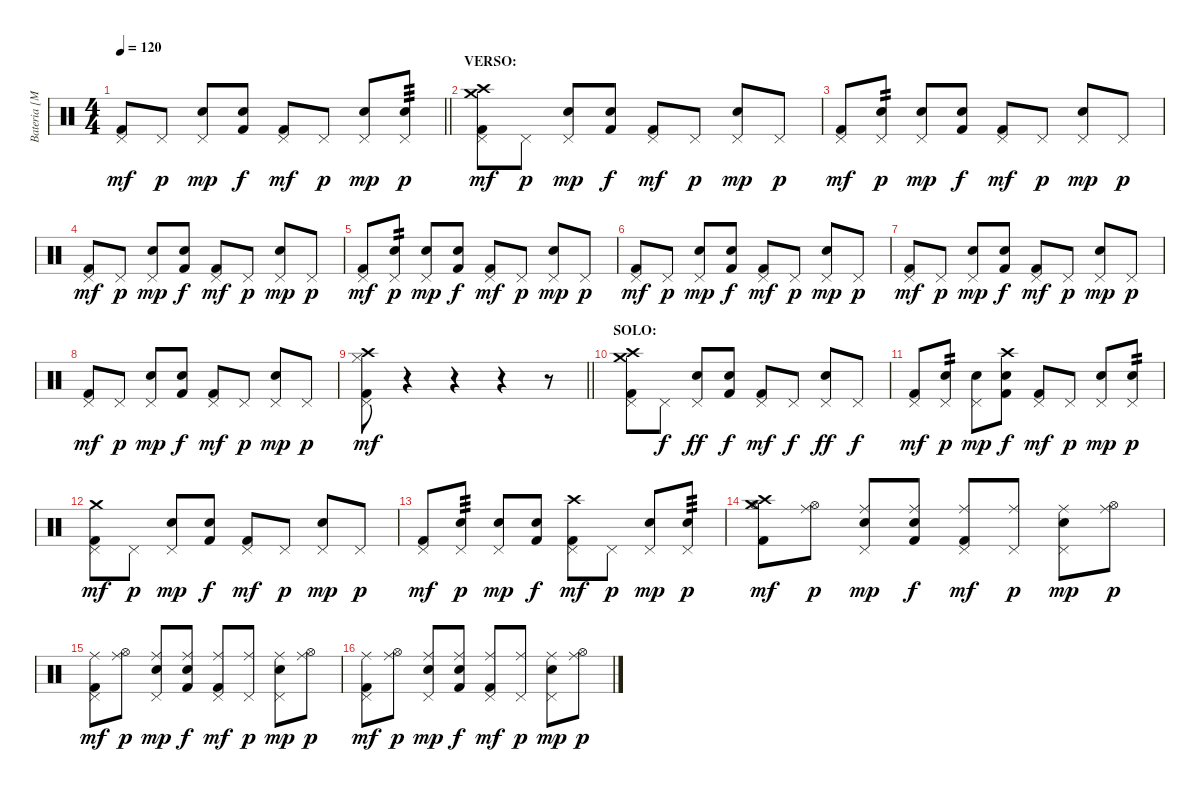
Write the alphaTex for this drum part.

\track ("Bateria [Mauricio Basualto]" "Bateria [M") {instrument percussion}
\staff {score}
\articulation defaults
\ts (4 4)
\tempo 120
\clef neutral
\barLineRight lightlight
\ks c
("Kick (hit) 2" "Pedal Hi-Hat (hit)").8{dy mf} "Pedal Hi-Hat (hit)".8{dy p} ("Electric Snare (hit)" "Pedal Hi-Hat (hit)").8{dy mp} ("Electric Snare (hit)" "Kick (hit) 2").8{dy f} ("Kick (hit) 2" "Pedal Hi-Hat (hit)").8{dy mf} "Pedal Hi-Hat (hit)".8{dy p} ("Electric Snare (hit)" "Pedal Hi-Hat (hit)").8{dy mp} ("Pedal Hi-Hat (hit)" "Electric Snare (hit)").8{tp 3 dy p} |
\section ("" "VERSO: ")
("Kick (hit) 2" "Pedal Hi-Hat (hit)" "Crash medium (hit)" "Crash high (hit)").8{dy mf} "Pedal Hi-Hat (hit)".8{dy p} ("Electric Snare (hit)" "Pedal Hi-Hat (hit)").8{dy mp} ("Electric Snare (hit)" "Kick (hit) 2").8{dy f} ("Kick (hit) 2" "Pedal Hi-Hat (hit)").8{dy mf} "Pedal Hi-Hat (hit)".8{dy p} ("Electric Snare (hit)" "Pedal Hi-Hat (hit)").8{dy mp} "Pedal Hi-Hat (hit)".8{dy p} |
("Kick (hit) 2" "Pedal Hi-Hat (hit)").8{dy mf} ("Pedal Hi-Hat (hit)" "Electric Snare (hit)").8{tp 2 dy p} ("Electric Snare (hit)" "Pedal Hi-Hat (hit)").8{dy mp} ("Electric Snare (hit)" "Kick (hit) 2").8{dy f} ("Kick (hit) 2" "Pedal Hi-Hat (hit)").8{dy mf} "Pedal Hi-Hat (hit)".8{dy p} ("Electric Snare (hit)" "Pedal Hi-Hat (hit)").8{dy mp} "Pedal Hi-Hat (hit)".8{dy p} |
("Kick (hit) 2" "Pedal Hi-Hat (hit)").8{dy mf} "Pedal Hi-Hat (hit)".8{dy p} ("Electric Snare (hit)" "Pedal Hi-Hat (hit)").8{dy mp} ("Electric Snare (hit)" "Kick (hit) 2").8{dy f} ("Kick (hit) 2" "Pedal Hi-Hat (hit)").8{dy mf} "Pedal Hi-Hat (hit)".8{dy p} ("Electric Snare (hit)" "Pedal Hi-Hat (hit)").8{dy mp} "Pedal Hi-Hat (hit)".8{dy p} |
("Kick (hit) 2" "Pedal Hi-Hat (hit)").8{dy mf} ("Pedal Hi-Hat (hit)" "Electric Snare (hit)").8{tp 2 dy p} ("Electric Snare (hit)" "Pedal Hi-Hat (hit)").8{dy mp} ("Electric Snare (hit)" "Kick (hit) 2").8{dy f} ("Kick (hit) 2" "Pedal Hi-Hat (hit)").8{dy mf} "Pedal Hi-Hat (hit)".8{dy p} ("Electric Snare (hit)" "Pedal Hi-Hat (hit)").8{dy mp} "Pedal Hi-Hat (hit)".8{dy p} |
("Kick (hit) 2" "Pedal Hi-Hat (hit)").8{dy mf} "Pedal Hi-Hat (hit)".8{dy p} ("Electric Snare (hit)" "Pedal Hi-Hat (hit)").8{dy mp} ("Electric Snare (hit)" "Kick (hit) 2").8{dy f} ("Kick (hit) 2" "Pedal Hi-Hat (hit)").8{dy mf} "Pedal Hi-Hat (hit)".8{dy p} ("Electric Snare (hit)" "Pedal Hi-Hat (hit)").8{dy mp} "Pedal Hi-Hat (hit)".8{dy p} |
("Kick (hit) 2" "Pedal Hi-Hat (hit)").8{dy mf} "Pedal Hi-Hat (hit)".8{dy p} ("Electric Snare (hit)" "Pedal Hi-Hat (hit)").8{dy mp} ("Electric Snare (hit)" "Kick (hit) 2").8{dy f} ("Kick (hit) 2" "Pedal Hi-Hat (hit)").8{dy mf} "Pedal Hi-Hat (hit)".8{dy p} ("Electric Snare (hit)" "Pedal Hi-Hat (hit)").8{dy mp} "Pedal Hi-Hat (hit)".8{dy p} |
("Kick (hit) 2" "Pedal Hi-Hat (hit)").8{dy mf} "Pedal Hi-Hat (hit)".8{dy p} ("Electric Snare (hit)" "Pedal Hi-Hat (hit)").8{dy mp} ("Electric Snare (hit)" "Kick (hit) 2").8{dy f} ("Kick (hit) 2" "Pedal Hi-Hat (hit)").8{dy mf} "Pedal Hi-Hat (hit)".8{dy p} ("Electric Snare (hit)" "Pedal Hi-Hat (hit)").8{dy mp} "Pedal Hi-Hat (hit)".8{dy p} |
\barLineRight lightlight
("Kick (hit) 2" "Hi-Hat (closed)" "Pedal Hi-Hat (hit)" "Crash high (hit)").8{dy mf} r.4 r.4 r.4 r.8 |
\section ("" "SOLO:")
("Kick (hit) 2" "Pedal Hi-Hat (hit)" "Crash medium (hit)" "Crash high (hit)").8 "Pedal Hi-Hat (hit)".8{dy f} ("Electric Snare (hit)" "Pedal Hi-Hat (hit)").8{dy ff} ("Electric Snare (hit)" "Kick (hit) 2").8{dy f} ("Kick (hit) 2" "Pedal Hi-Hat (hit)").8{dy mf} "Pedal Hi-Hat (hit)".8{dy f} ("Electric Snare (hit)" "Pedal Hi-Hat (hit)").8{dy ff} "Pedal Hi-Hat (hit)".8{dy f} |
("Kick (hit) 2" "Pedal Hi-Hat (hit)").8{dy mf} ("Pedal Hi-Hat (hit)" "Electric Snare (hit)").8{tp 2 dy p} ("Electric Snare (hit)" "Pedal Hi-Hat (hit)").8{dy mp} ("Electric Snare (hit)" "Kick (hit) 2" "Crash high (hit)").8{dy f} ("Kick (hit) 2" "Pedal Hi-Hat (hit)").8{dy mf} "Pedal Hi-Hat (hit)".8{dy p} ("Electric Snare (hit)" "Pedal Hi-Hat (hit)").8{dy mp} ("Pedal Hi-Hat (hit)" "Electric Snare (hit)").8{tp 2 dy p} |
("Kick (hit) 2" "Pedal Hi-Hat (hit)" "Crash medium (hit)").8{dy mf} "Pedal Hi-Hat (hit)".8{dy p} ("Electric Snare (hit)" "Pedal Hi-Hat (hit)").8{dy mp} ("Electric Snare (hit)" "Kick (hit) 2").8{dy f} ("Kick (hit) 2" "Pedal Hi-Hat (hit)").8{dy mf} "Pedal Hi-Hat (hit)".8{dy p} ("Electric Snare (hit)" "Pedal Hi-Hat (hit)").8{dy mp} "Pedal Hi-Hat (hit)".8{dy p} |
("Kick (hit) 2" "Pedal Hi-Hat (hit)").8{dy mf} ("Pedal Hi-Hat (hit)" "Electric Snare (hit)").8{tp 3 dy p} ("Electric Snare (hit)" "Pedal Hi-Hat (hit)").8{dy mp} ("Electric Snare (hit)" "Kick (hit) 2").8{dy f} ("Kick (hit) 2" "Pedal Hi-Hat (hit)" "Crash high (hit)").8{dy mf} "Pedal Hi-Hat (hit)".8{dy p} ("Electric Snare (hit)" "Pedal Hi-Hat (hit)").8{dy mp} ("Pedal Hi-Hat (hit)" "Electric Snare (hit)").8{tp 3 dy p} |
("Kick (hit) 2" "Hi-Hat (open)" "Crash medium (hit)" "Crash high (hit)").8{dy mf} ("Hi-Hat (open)" "Ride (middle)").8{dy p} ("Electric Snare (hit)" "Pedal Hi-Hat (hit)" "Ride (middle)").8{dy mp} ("Electric Snare (hit)" "Kick (hit) 2" "Ride (middle)").8{dy f} ("Kick (hit) 2" "Pedal Hi-Hat (hit)" "Ride (middle)").8{dy mf} ("Pedal Hi-Hat (hit)" "Ride (middle)").8{dy p} ("Electric Snare (hit)" "Pedal Hi-Hat (hit)" "Ride (middle)").8{dy mp} ("Hi-Hat (open)" "Ride (middle)").8{dy p} |
("Kick (hit) 2" "Pedal Hi-Hat (hit)" "Ride (middle)").8{dy mf} ("Hi-Hat (open)" "Ride (middle)").8{dy p} ("Electric Snare (hit)" "Pedal Hi-Hat (hit)" "Ride (middle)").8{dy mp} ("Electric Snare (hit)" "Kick (hit) 2" "Ride (middle)").8{dy f} ("Kick (hit) 2" "Pedal Hi-Hat (hit)" "Ride (middle)").8{dy mf} ("Pedal Hi-Hat (hit)" "Ride (middle)").8{dy p} ("Electric Snare (hit)" "Pedal Hi-Hat (hit)" "Ride (middle)").8{dy mp} ("Hi-Hat (open)" "Ride (middle)").8{dy p} |
("Kick (hit) 2" "Pedal Hi-Hat (hit)" "Ride (middle)").8{dy mf} ("Hi-Hat (open)" "Ride (middle)").8{dy p} ("Electric Snare (hit)" "Pedal Hi-Hat (hit)" "Ride (middle)").8{dy mp} ("Electric Snare (hit)" "Kick (hit) 2" "Ride (middle)").8{dy f} ("Kick (hit) 2" "Pedal Hi-Hat (hit)" "Ride (middle)").8{dy mf} ("Pedal Hi-Hat (hit)" "Ride (middle)").8{dy p} ("Electric Snare (hit)" "Pedal Hi-Hat (hit)" "Ride (middle)").8{dy mp} ("Hi-Hat (open)" "Ride (middle)").8{dy p}
